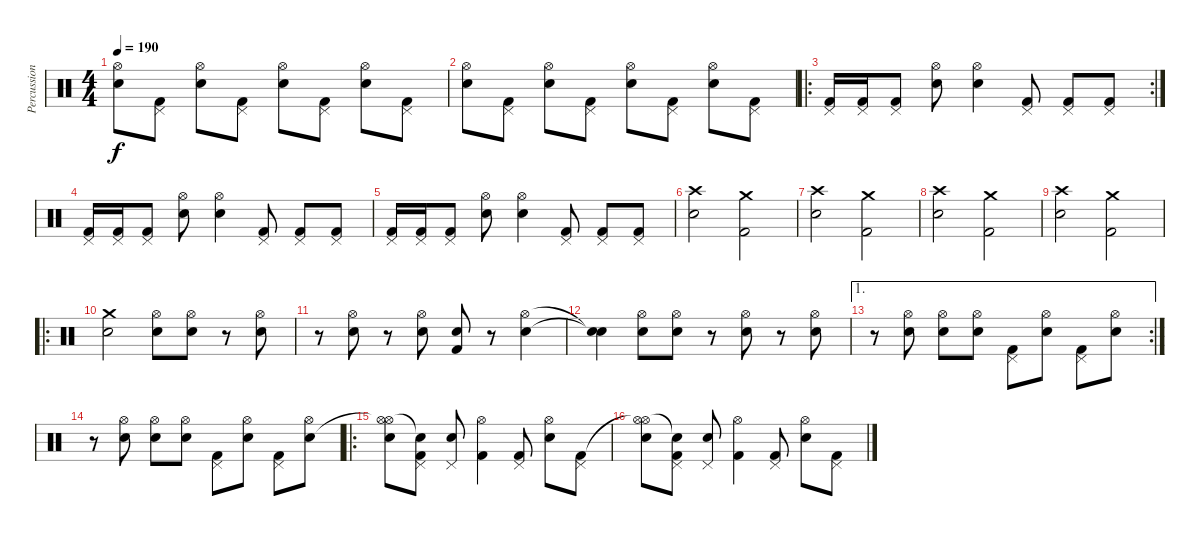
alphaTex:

\track ("Percussion" "Percussion") {instrument percussion}
\staff {score}
\articulation defaults
\ts (4 4)
\tempo 190
\clef neutral
\ks c
("Hi-Hat (open)" "Snare (hit) 2").8{dy f} ("Pedal Hi-Hat (hit)" "Kick (hit) 2").8 ("Hi-Hat (open)" "Snare (hit) 2").8 ("Pedal Hi-Hat (hit)" "Kick (hit) 2").8 ("Hi-Hat (open)" "Snare (hit) 2").8 ("Pedal Hi-Hat (hit)" "Kick (hit) 2").8 ("Hi-Hat (open)" "Snare (hit) 2").8 ("Pedal Hi-Hat (hit)" "Kick (hit) 2").8 |
("Hi-Hat (open)" "Snare (hit) 2").8 ("Pedal Hi-Hat (hit)" "Kick (hit) 2").8 ("Hi-Hat (open)" "Snare (hit) 2").8 ("Pedal Hi-Hat (hit)" "Kick (hit) 2").8 ("Hi-Hat (open)" "Snare (hit) 2").8 ("Pedal Hi-Hat (hit)" "Kick (hit) 2").8 ("Hi-Hat (open)" "Snare (hit) 2").8 ("Pedal Hi-Hat (hit)" "Kick (hit) 2").8 |
\ro
\rc 2
("Pedal Hi-Hat (hit)" "Kick (hit) 2").16 ("Pedal Hi-Hat (hit)" "Kick (hit) 2").16 ("Pedal Hi-Hat (hit)" "Kick (hit) 2").8 ("Hi-Hat (open)" "Snare (hit) 2").8 ("Hi-Hat (open)" "Snare (hit) 2").4 ("Pedal Hi-Hat (hit)" "Kick (hit) 2").8 ("Pedal Hi-Hat (hit)" "Kick (hit) 2").8 ("Pedal Hi-Hat (hit)" "Kick (hit) 2").8 |
("Pedal Hi-Hat (hit)" "Kick (hit) 2").16 ("Pedal Hi-Hat (hit)" "Kick (hit) 2").16 ("Pedal Hi-Hat (hit)" "Kick (hit) 2").8 ("Hi-Hat (open)" "Snare (hit) 2").8 ("Hi-Hat (open)" "Snare (hit) 2").4 ("Pedal Hi-Hat (hit)" "Kick (hit) 2").8 ("Pedal Hi-Hat (hit)" "Kick (hit) 2").8 ("Pedal Hi-Hat (hit)" "Kick (hit) 2").8 |
("Pedal Hi-Hat (hit)" "Kick (hit) 2").16 ("Pedal Hi-Hat (hit)" "Kick (hit) 2").16 ("Pedal Hi-Hat (hit)" "Kick (hit) 2").8 ("Hi-Hat (open)" "Snare (hit) 2").8 ("Hi-Hat (open)" "Snare (hit) 2").4 ("Pedal Hi-Hat (hit)" "Kick (hit) 2").8 ("Pedal Hi-Hat (hit)" "Kick (hit) 2").8 ("Pedal Hi-Hat (hit)" "Kick (hit) 2").8 |
("Crash high (hit)" "Snare (hit) 2").2 ("Crash medium (hit)" "Kick (hit) 2").2 |
("Crash high (hit)" "Snare (hit) 2").2 ("Crash medium (hit)" "Kick (hit) 2").2 |
("Crash high (hit)" "Snare (hit) 2").2 ("Crash medium (hit)" "Kick (hit) 2").2 |
("Crash high (hit)" "Snare (hit) 2").2 ("Crash medium (hit)" "Kick (hit) 2").2 |
\ro
("Crash medium (hit)" "Snare (hit) 2").2 ("Hi-Hat (open)" "Snare (hit) 2").8 ("Hi-Hat (open)" "Snare (hit) 2").8 r.8 ("Hi-Hat (open)" "Snare (hit) 2").8 |
r.8 ("Hi-Hat (open)" "Snare (hit) 2").8 r.8 ("Hi-Hat (open)" "Snare (hit) 2").8 ("Kick (hit) 2" "Snare (hit) 2").8 r.8 ("Hi-Hat (open)" "Snare (hit) 2").4 |
("Snare (hit)"{t} "Snare (hit)"{t}).4 ("Hi-Hat (open)" "Snare (hit) 2").8 ("Hi-Hat (open)" "Snare (hit) 2").8 r.8 ("Hi-Hat (open)" "Snare (hit) 2").8 r.8 ("Hi-Hat (open)" "Snare (hit) 2").8 |
\ae 1
\rc 2
r.8 ("Hi-Hat (open)" "Snare (hit) 2").8 ("Hi-Hat (open)" "Snare (hit) 2").8 ("Hi-Hat (open)" "Snare (hit) 2").8 ("Pedal Hi-Hat (hit)" "Kick (hit) 2").8 ("Hi-Hat (open)" "Snare (hit) 2").8 ("Pedal Hi-Hat (hit)" "Kick (hit) 2").8 ("Hi-Hat (open)" "Snare (hit) 2").8 |
r.8 ("Hi-Hat (open)" "Snare (hit) 2").8 ("Hi-Hat (open)" "Snare (hit) 2").8 ("Hi-Hat (open)" "Snare (hit) 2").8 ("Pedal Hi-Hat (hit)" "Kick (hit) 2").8 ("Hi-Hat (open)" "Snare (hit) 2").8 ("Pedal Hi-Hat (hit)" "Kick (hit) 2").8 ("Hi-Hat (open)" "Snare (hit) 2").8 |
\ro
("Hi-Hat (open)" "Hi-Hat (open)"{t} "Snare (hit) 2").8 ("Snare (hit)"{t} "Pedal Hi-Hat (hit)" "Kick (hit) 2").8 ("Pedal Hi-Hat (hit)" "Snare (hit) 2").8 ("Hi-Hat (open)" "Kick (hit) 2").4 ("Pedal Hi-Hat (hit)" "Kick (hit) 2").8 ("Hi-Hat (open)" "Snare (hit) 2").8 ("Pedal Hi-Hat (hit)" "Kick (hit) 2").8 |
("Hi-Hat (open)" "Hi-Hat (open)"{t} "Snare (hit) 2").8 ("Snare (hit)"{t} "Pedal Hi-Hat (hit)" "Kick (hit) 2").8 ("Pedal Hi-Hat (hit)" "Snare (hit) 2").8 ("Hi-Hat (open)" "Kick (hit) 2").4 ("Pedal Hi-Hat (hit)" "Kick (hit) 2").8 ("Hi-Hat (open)" "Snare (hit) 2").8 ("Pedal Hi-Hat (hit)" "Kick (hit) 2").8
